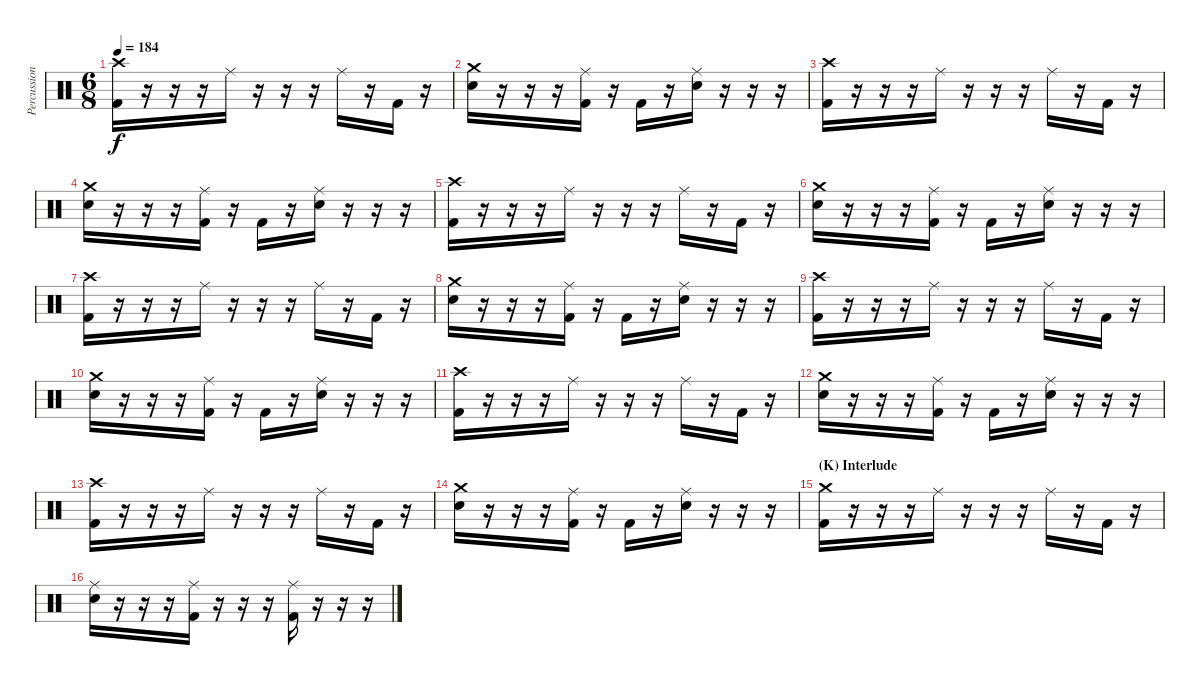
\track ("Percussion" "Percussion") {instrument percussion}
\staff {score}
\articulation defaults
\ts (6 8)
\tempo 184
\clef neutral
\ks c
("Crash high (hit)" "Kick (hit) 2").16{dy f} r.16 r.16 r.16 "Ride (middle)".16 r.16 r.16 r.16 "Ride (middle)".16 r.16 "Kick (hit) 2".16 r.16 |
("Crash medium (hit)" "Electric Snare (hit)").16 r.16 r.16 r.16 ("Ride (middle)" "Kick (hit) 2").16 r.16 "Kick (hit) 2".16 r.16 ("Ride (middle)" "Electric Snare (hit)").16 r.16 r.16 r.16 |
("Crash high (hit)" "Kick (hit) 2").16 r.16 r.16 r.16 "Ride (middle)".16 r.16 r.16 r.16 "Ride (middle)".16 r.16 "Kick (hit) 2".16 r.16 |
("Crash medium (hit)" "Electric Snare (hit)").16 r.16 r.16 r.16 ("Ride (middle)" "Kick (hit) 2").16 r.16 "Kick (hit) 2".16 r.16 ("Ride (middle)" "Electric Snare (hit)").16 r.16 r.16 r.16 |
("Crash high (hit)" "Kick (hit) 2").16 r.16 r.16 r.16 "Ride (middle)".16 r.16 r.16 r.16 "Ride (middle)".16 r.16 "Kick (hit) 2".16 r.16 |
("Crash medium (hit)" "Electric Snare (hit)").16 r.16 r.16 r.16 ("Ride (middle)" "Kick (hit) 2").16 r.16 "Kick (hit) 2".16 r.16 ("Ride (middle)" "Electric Snare (hit)").16 r.16 r.16 r.16 |
("Crash high (hit)" "Kick (hit) 2").16 r.16 r.16 r.16 "Ride (middle)".16 r.16 r.16 r.16 "Ride (middle)".16 r.16 "Kick (hit) 2".16 r.16 |
("Crash medium (hit)" "Electric Snare (hit)").16 r.16 r.16 r.16 ("Ride (middle)" "Kick (hit) 2").16 r.16 "Kick (hit) 2".16 r.16 ("Ride (middle)" "Electric Snare (hit)").16 r.16 r.16 r.16 |
("Crash high (hit)" "Kick (hit) 2").16 r.16 r.16 r.16 "Ride (middle)".16 r.16 r.16 r.16 "Ride (middle)".16 r.16 "Kick (hit) 2".16 r.16 |
("Crash medium (hit)" "Electric Snare (hit)").16 r.16 r.16 r.16 ("Ride (middle)" "Kick (hit) 2").16 r.16 "Kick (hit) 2".16 r.16 ("Ride (middle)" "Electric Snare (hit)").16 r.16 r.16 r.16 |
("Crash high (hit)" "Kick (hit) 2").16 r.16 r.16 r.16 "Ride (middle)".16 r.16 r.16 r.16 "Ride (middle)".16 r.16 "Kick (hit) 2".16 r.16 |
("Crash medium (hit)" "Electric Snare (hit)").16 r.16 r.16 r.16 ("Ride (middle)" "Kick (hit) 2").16 r.16 "Kick (hit) 2".16 r.16 ("Ride (middle)" "Electric Snare (hit)").16 r.16 r.16 r.16 |
("Crash high (hit)" "Kick (hit) 2").16 r.16 r.16 r.16 "Ride (middle)".16 r.16 r.16 r.16 "Ride (middle)".16 r.16 "Kick (hit) 2".16 r.16 |
("Crash medium (hit)" "Electric Snare (hit)").16 r.16 r.16 r.16 ("Ride (middle)" "Kick (hit) 2").16 r.16 "Kick (hit) 2".16 r.16 ("Ride (middle)" "Electric Snare (hit)").16 r.16 r.16 r.16 |
\section ("" "(K) Interlude")
("Crash medium (hit)" "Kick (hit) 2").16 r.16 r.16 r.16 "Ride (middle)".16 r.16 r.16 r.16 "Ride (middle)".16 r.16 "Kick (hit) 2".16 r.16 |
("Ride (middle)" "Electric Snare (hit)").16 r.16 r.16 r.16 ("Ride (middle)" "Kick (hit) 2").16 r.16 r.16 r.16 ("Ride (middle)" "Kick (hit) 2").16 r.16 r.16 r.16
